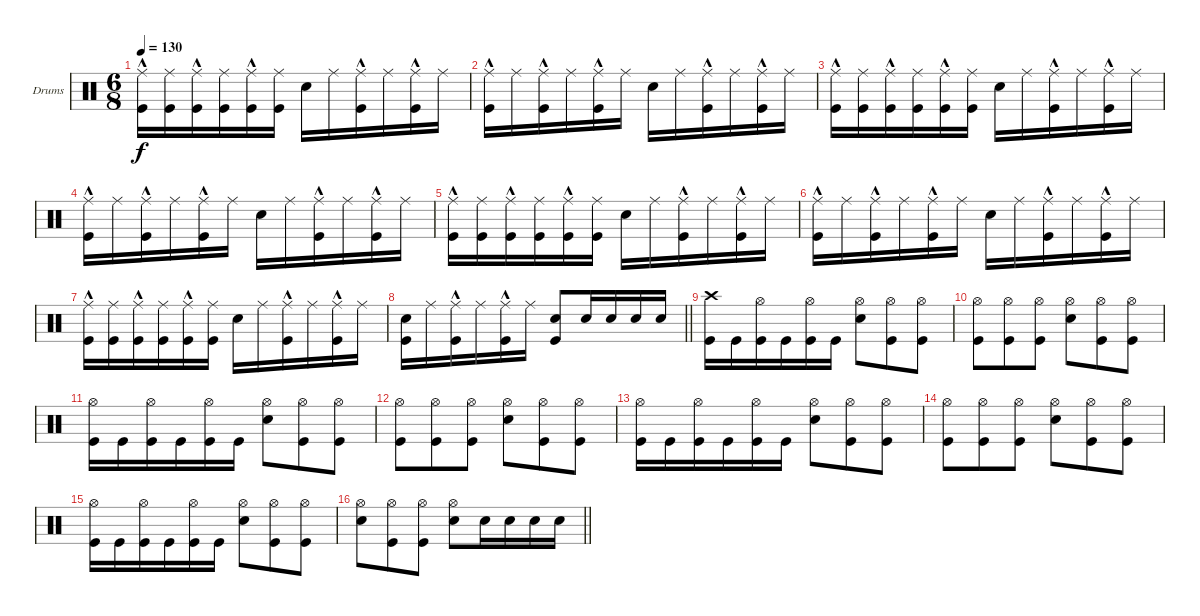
\bracketExtendMode groupsimilarinstruments
\firstSystemTrackNameOrientation horizontal
\otherSystemsTrackNameOrientation horizontal
\track ("drums (Anton Zulganov)" "Drums") {instrument percussion}
\staff {score}
\articulation defaults
\ts (6 8)
\tempo 130
\clef neutral
\ks aminor
("Kick (hit)" "Ride (middle)"{hac}).16{dy f} ("Kick (hit)" "Ride (middle)").16 ("Kick (hit)" "Ride (middle)"{hac}).16 ("Kick (hit)" "Ride (middle)").16 ("Kick (hit)" "Ride (middle)"{hac}).16 ("Kick (hit)" "Ride (middle)").16 "Snare (hit) 2".16 "Ride (middle)".16 ("Kick (hit)" "Ride (middle)"{hac}).16 "Ride (middle)".16 ("Kick (hit)" "Ride (middle)"{hac}).16 "Ride (middle)".16 |
("Kick (hit)" "Ride (middle)"{hac}).16 "Ride (middle)".16 ("Kick (hit)" "Ride (middle)"{hac}).16 "Ride (middle)".16 ("Kick (hit)" "Ride (middle)"{hac}).16 "Ride (middle)".16 "Snare (hit) 2".16 "Ride (middle)".16 ("Kick (hit)" "Ride (middle)"{hac}).16 "Ride (middle)".16 ("Kick (hit)" "Ride (middle)"{hac}).16 "Ride (middle)".16 |
("Kick (hit)" "Ride (middle)"{hac}).16 ("Kick (hit)" "Ride (middle)").16 ("Kick (hit)" "Ride (middle)"{hac}).16 ("Kick (hit)" "Ride (middle)").16 ("Kick (hit)" "Ride (middle)"{hac}).16 ("Kick (hit)" "Ride (middle)").16 "Snare (hit) 2".16 "Ride (middle)".16 ("Kick (hit)" "Ride (middle)"{hac}).16 "Ride (middle)".16 ("Kick (hit)" "Ride (middle)"{hac}).16 "Ride (middle)".16 |
("Kick (hit)" "Ride (middle)"{hac}).16 "Ride (middle)".16 ("Kick (hit)" "Ride (middle)"{hac}).16 "Ride (middle)".16 ("Kick (hit)" "Ride (middle)"{hac}).16 "Ride (middle)".16 "Snare (hit) 2".16 "Ride (middle)".16 ("Kick (hit)" "Ride (middle)"{hac}).16 "Ride (middle)".16 ("Kick (hit)" "Ride (middle)"{hac}).16 "Ride (middle)".16 |
("Kick (hit)" "Ride (middle)"{hac}).16 ("Kick (hit)" "Ride (middle)").16 ("Kick (hit)" "Ride (middle)"{hac}).16 ("Kick (hit)" "Ride (middle)").16 ("Kick (hit)" "Ride (middle)"{hac}).16 ("Kick (hit)" "Ride (middle)").16 "Snare (hit) 2".16 "Ride (middle)".16 ("Kick (hit)" "Ride (middle)"{hac}).16 "Ride (middle)".16 ("Kick (hit)" "Ride (middle)"{hac}).16 "Ride (middle)".16 |
("Kick (hit)" "Ride (middle)"{hac}).16 "Ride (middle)".16 ("Kick (hit)" "Ride (middle)"{hac}).16 "Ride (middle)".16 ("Kick (hit)" "Ride (middle)"{hac}).16 "Ride (middle)".16 "Snare (hit) 2".16 "Ride (middle)".16 ("Kick (hit)" "Ride (middle)"{hac}).16 "Ride (middle)".16 ("Kick (hit)" "Ride (middle)"{hac}).16 "Ride (middle)".16 |
("Kick (hit)" "Ride (middle)"{hac}).16 ("Kick (hit)" "Ride (middle)").16 ("Kick (hit)" "Ride (middle)"{hac}).16 ("Kick (hit)" "Ride (middle)").16 ("Kick (hit)" "Ride (middle)"{hac}).16 ("Kick (hit)" "Ride (middle)").16 "Snare (hit) 2".16 "Ride (middle)".16 ("Kick (hit)" "Ride (middle)"{hac}).16 "Ride (middle)".16 ("Kick (hit)" "Ride (middle)"{hac}).16 "Ride (middle)".16 |
\barLineRight lightlight
("Kick (hit)" "Snare (hit) 2").16 "Ride (middle)".16 ("Kick (hit)" "Ride (middle)"{hac}).16 "Ride (middle)".16 ("Kick (hit)" "Ride (middle)"{hac}).16 "Ride (middle)".16 ("Snare (hit) 2" "Kick (hit)").8 "Snare (hit) 2".16 "Snare (hit) 2".16 "Snare (hit) 2".16 "Snare (hit) 2".16 |
("Kick (hit)" "Crash high (hit)").16 "Kick (hit)".16 ("Kick (hit)" "Hi-Hat (open)").16 "Kick (hit)".16 ("Kick (hit)" "Hi-Hat (open)").16 "Kick (hit)".16 ("Snare (hit) 2" "Hi-Hat (open)").8 ("Kick (hit)" "Hi-Hat (open)").8 ("Kick (hit)" "Hi-Hat (open)").8 |
("Kick (hit)" "Hi-Hat (open)").8 ("Kick (hit)" "Hi-Hat (open)").8 ("Kick (hit)" "Hi-Hat (open)").8 ("Snare (hit) 2" "Hi-Hat (open)").8 ("Kick (hit)" "Hi-Hat (open)").8 ("Kick (hit)" "Hi-Hat (open)").8 |
("Kick (hit)" "Hi-Hat (open)").16 "Kick (hit)".16 ("Kick (hit)" "Hi-Hat (open)").16 "Kick (hit)".16 ("Kick (hit)" "Hi-Hat (open)").16 "Kick (hit)".16 ("Snare (hit) 2" "Hi-Hat (open)").8 ("Kick (hit)" "Hi-Hat (open)").8 ("Kick (hit)" "Hi-Hat (open)").8 |
("Kick (hit)" "Hi-Hat (open)").8 ("Kick (hit)" "Hi-Hat (open)").8 ("Kick (hit)" "Hi-Hat (open)").8 ("Snare (hit) 2" "Hi-Hat (open)").8 ("Kick (hit)" "Hi-Hat (open)").8 ("Kick (hit)" "Hi-Hat (open)").8 |
("Kick (hit)" "Hi-Hat (open)").16 "Kick (hit)".16 ("Kick (hit)" "Hi-Hat (open)").16 "Kick (hit)".16 ("Kick (hit)" "Hi-Hat (open)").16 "Kick (hit)".16 ("Snare (hit) 2" "Hi-Hat (open)").8 ("Kick (hit)" "Hi-Hat (open)").8 ("Kick (hit)" "Hi-Hat (open)").8 |
("Kick (hit)" "Hi-Hat (open)").8 ("Kick (hit)" "Hi-Hat (open)").8 ("Kick (hit)" "Hi-Hat (open)").8 ("Snare (hit) 2" "Hi-Hat (open)").8 ("Kick (hit)" "Hi-Hat (open)").8 ("Kick (hit)" "Hi-Hat (open)").8 |
("Kick (hit)" "Hi-Hat (open)").16 "Kick (hit)".16 ("Kick (hit)" "Hi-Hat (open)").16 "Kick (hit)".16 ("Kick (hit)" "Hi-Hat (open)").16 "Kick (hit)".16 ("Snare (hit) 2" "Hi-Hat (open)").8 ("Kick (hit)" "Hi-Hat (open)").8 ("Kick (hit)" "Hi-Hat (open)").8 |
\barLineRight lightlight
("Snare (hit) 2" "Hi-Hat (open)").8 ("Kick (hit)" "Hi-Hat (open)").8 ("Kick (hit)" "Hi-Hat (open)").8 ("Snare (hit) 2" "Hi-Hat (open)").8 "Snare (hit) 2".16 "Snare (hit) 2".16 "Snare (hit) 2".16 "Snare (hit) 2".16
